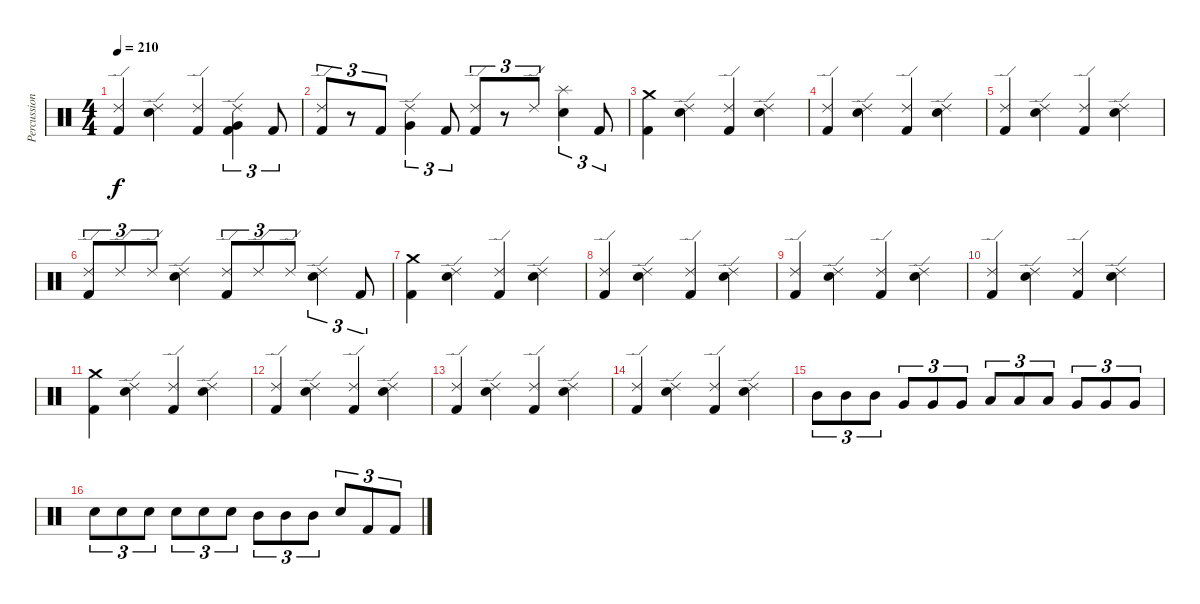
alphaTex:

\track ("Percussions" "Percussion") {instrument percussion}
\staff {score}
\articulation defaults
\ts (4 4)
\tempo 210
\clef neutral
\ks c
("Ride (edge) 2" "Kick (hit) 2").4{dy f} ("Ride (edge) 2" "Snare (hit) 2").4 ("Ride (edge) 2" "Kick (hit) 2").4 ("Ride (edge) 2" "Very Low Tom (hit)" "Kick (hit) 2").4{tu (3 2)} "Kick (hit) 2".8{tu (3 2)} |
("Ride (edge) 2" "Kick (hit) 2").8{tu (3 2)} r.8{tu (3 2)} "Kick (hit) 2".8{tu (3 2)} ("Ride (edge) 2" "Very Low Tom (hit)").4{tu (3 2)} "Kick (hit) 2".8{tu (3 2)} ("Ride (edge) 2" "Kick (hit) 2").8{tu (3 2)} r.8{tu (3 2)} "Ride (edge) 2".8{tu (3 2)} ("Splash (hit)" "Snare (hit) 2").4{tu (3 2)} "Kick (hit) 2".8{tu (3 2)} |
("Crash medium (hit)" "Kick (hit) 2").4 ("Ride (edge) 2" "Snare (hit) 2").4 ("Ride (edge) 2" "Kick (hit) 2").4 ("Ride (edge) 2" "Snare (hit) 2").4 |
("Ride (edge) 2" "Kick (hit) 2").4 ("Ride (edge) 2" "Snare (hit) 2").4 ("Ride (edge) 2" "Kick (hit) 2").4 ("Ride (edge) 2" "Snare (hit) 2").4 |
("Ride (edge) 2" "Kick (hit) 2").4 ("Ride (edge) 2" "Snare (hit) 2").4 ("Ride (edge) 2" "Kick (hit) 2").4 ("Ride (edge) 2" "Snare (hit) 2").4 |
("Ride (edge) 2" "Kick (hit) 2").8{tu (3 2)} "Ride (edge) 2".8{tu (3 2)} "Ride (edge) 2".8{tu (3 2)} ("Ride (edge) 2" "Snare (hit) 2").4 ("Ride (edge) 2" "Kick (hit) 2").8{tu (3 2)} "Ride (edge) 2".8{tu (3 2)} "Ride (edge) 2".8{tu (3 2)} ("Ride (edge) 2" "Snare (hit) 2").4{tu (3 2)} "Kick (hit) 2".8{tu (3 2)} |
("Crash medium (hit)" "Kick (hit) 2").4 ("Ride (edge) 2" "Snare (hit) 2").4 ("Ride (edge) 2" "Kick (hit) 2").4 ("Ride (edge) 2" "Snare (hit) 2").4 |
("Ride (edge) 2" "Kick (hit) 2").4 ("Ride (edge) 2" "Snare (hit) 2").4 ("Ride (edge) 2" "Kick (hit) 2").4 ("Ride (edge) 2" "Snare (hit) 2").4 |
("Ride (edge) 2" "Kick (hit) 2").4 ("Ride (edge) 2" "Snare (hit) 2").4 ("Ride (edge) 2" "Kick (hit) 2").4 ("Ride (edge) 2" "Snare (hit) 2").4 |
("Ride (edge) 2" "Kick (hit) 2").4 ("Ride (edge) 2" "Snare (hit) 2").4 ("Ride (edge) 2" "Kick (hit) 2").4 ("Ride (edge) 2" "Snare (hit) 2").4 |
("Crash medium (hit)" "Kick (hit) 2").4 ("Ride (edge) 2" "Snare (hit) 2").4 ("Ride (edge) 2" "Kick (hit) 2").4 ("Ride (edge) 2" "Snare (hit) 2").4 |
("Ride (edge) 2" "Kick (hit) 2").4 ("Ride (edge) 2" "Snare (hit) 2").4 ("Ride (edge) 2" "Kick (hit) 2").4 ("Ride (edge) 2" "Snare (hit) 2").4 |
("Ride (edge) 2" "Kick (hit) 2").4 ("Ride (edge) 2" "Snare (hit) 2").4 ("Ride (edge) 2" "Kick (hit) 2").4 ("Ride (edge) 2" "Snare (hit) 2").4 |
("Ride (edge) 2" "Kick (hit) 2").4 ("Ride (edge) 2" "Snare (hit) 2").4 ("Ride (edge) 2" "Kick (hit) 2").4 ("Ride (edge) 2" "Snare (hit) 2").4 |
"Mid Tom (hit)".8{tu (3 2)} "Mid Tom (hit)".8{tu (3 2)} "Mid Tom (hit)".8{tu (3 2)} "Very Low Tom (hit)".8{tu (3 2)} "Very Low Tom (hit)".8{tu (3 2)} "Very Low Tom (hit)".8{tu (3 2)} "Low Tom (hit)".8{tu (3 2)} "Low Tom (hit)".8{tu (3 2)} "Low Tom (hit)".8{tu (3 2)} "Very Low Tom (hit)".8{tu (3 2)} "Very Low Tom (hit)".8{tu (3 2)} "Very Low Tom (hit)".8{tu (3 2)} |
"Snare (hit) 2".8{tu (3 2)} "Snare (hit) 2".8{tu (3 2)} "Snare (hit) 2".8{tu (3 2)} "Snare (hit) 2".8{tu (3 2)} "Snare (hit) 2".8{tu (3 2)} "Snare (hit) 2".8{tu (3 2)} "Mid Tom (hit)".8{tu (3 2)} "Mid Tom (hit)".8{tu (3 2)} "Mid Tom (hit)".8{tu (3 2)} "Snare (hit) 2".8{tu (3 2)} "Kick (hit) 2".8{tu (3 2)} "Kick (hit) 2".8{tu (3 2)}
